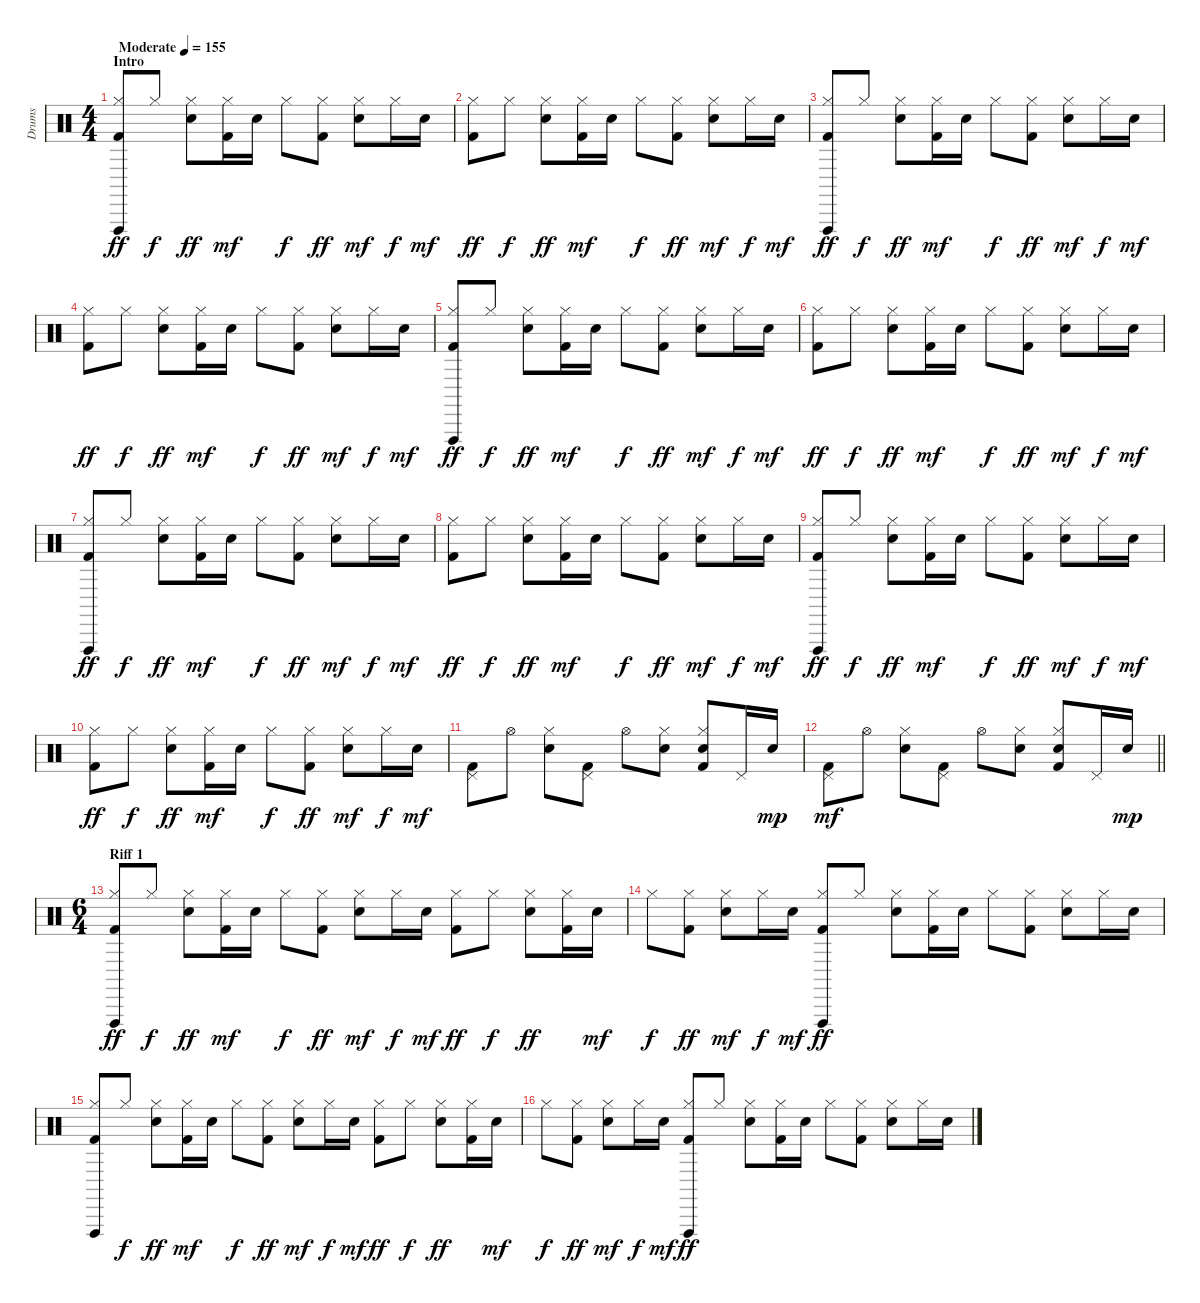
\track ("Drums" "Drums") {instrument percussion}
\staff {score}
\articulation defaults
\ts (4 4)
\section ("" "Intro")
\tempo (155 "Moderate")
\clef neutral
\ks c
("Kick (hit) 2" "Hi-Hat (closed)" "Vibraslap (hit)").8{dy ff} "Hi-Hat (closed)".8{dy f} ("Snare (hit) 2" "Hi-Hat (closed)").8{dy ff} ("Kick (hit) 2" "Hi-Hat (closed)").16{dy mf} "Snare (hit) 2".16 "Hi-Hat (closed)".8{dy f} ("Kick (hit) 2" "Hi-Hat (closed)").8{dy ff} ("Snare (hit) 2" "Hi-Hat (closed)").8{dy mf} "Hi-Hat (closed)".16{dy f} "Snare (hit) 2".16{dy mf} |
("Kick (hit) 2" "Hi-Hat (closed)").8{dy ff} "Hi-Hat (closed)".8{dy f} ("Snare (hit) 2" "Hi-Hat (closed)").8{dy ff} ("Kick (hit) 2" "Hi-Hat (closed)").16{dy mf} "Snare (hit) 2".16 "Hi-Hat (closed)".8{dy f} ("Kick (hit) 2" "Hi-Hat (closed)").8{dy ff} ("Snare (hit) 2" "Hi-Hat (closed)").8{dy mf} "Hi-Hat (closed)".16{dy f} "Snare (hit) 2".16{dy mf} |
("Kick (hit) 2" "Hi-Hat (closed)" "Vibraslap (hit)").8{dy ff} "Hi-Hat (closed)".8{dy f} ("Snare (hit) 2" "Hi-Hat (closed)").8{dy ff} ("Kick (hit) 2" "Hi-Hat (closed)").16{dy mf} "Snare (hit) 2".16 "Hi-Hat (closed)".8{dy f} ("Kick (hit) 2" "Hi-Hat (closed)").8{dy ff} ("Snare (hit) 2" "Hi-Hat (closed)").8{dy mf} "Hi-Hat (closed)".16{dy f} "Snare (hit) 2".16{dy mf} |
("Kick (hit) 2" "Hi-Hat (closed)").8{dy ff} "Hi-Hat (closed)".8{dy f} ("Snare (hit) 2" "Hi-Hat (closed)").8{dy ff} ("Kick (hit) 2" "Hi-Hat (closed)").16{dy mf} "Snare (hit) 2".16 "Hi-Hat (closed)".8{dy f} ("Kick (hit) 2" "Hi-Hat (closed)").8{dy ff} ("Snare (hit) 2" "Hi-Hat (closed)").8{dy mf} "Hi-Hat (closed)".16{dy f} "Snare (hit) 2".16{dy mf} |
("Kick (hit) 2" "Hi-Hat (closed)" "Vibraslap (hit)").8{dy ff} "Hi-Hat (closed)".8{dy f} ("Snare (hit) 2" "Hi-Hat (closed)").8{dy ff} ("Kick (hit) 2" "Hi-Hat (closed)").16{dy mf} "Snare (hit) 2".16 "Hi-Hat (closed)".8{dy f} ("Kick (hit) 2" "Hi-Hat (closed)").8{dy ff} ("Snare (hit) 2" "Hi-Hat (closed)").8{dy mf} "Hi-Hat (closed)".16{dy f} "Snare (hit) 2".16{dy mf} |
("Kick (hit) 2" "Hi-Hat (closed)").8{dy ff} "Hi-Hat (closed)".8{dy f} ("Snare (hit) 2" "Hi-Hat (closed)").8{dy ff} ("Kick (hit) 2" "Hi-Hat (closed)").16{dy mf} "Snare (hit) 2".16 "Hi-Hat (closed)".8{dy f} ("Kick (hit) 2" "Hi-Hat (closed)").8{dy ff} ("Snare (hit) 2" "Hi-Hat (closed)").8{dy mf} "Hi-Hat (closed)".16{dy f} "Snare (hit) 2".16{dy mf} |
("Kick (hit) 2" "Hi-Hat (closed)" "Vibraslap (hit)").8{dy ff} "Hi-Hat (closed)".8{dy f} ("Snare (hit) 2" "Hi-Hat (closed)").8{dy ff} ("Kick (hit) 2" "Hi-Hat (closed)").16{dy mf} "Snare (hit) 2".16 "Hi-Hat (closed)".8{dy f} ("Kick (hit) 2" "Hi-Hat (closed)").8{dy ff} ("Snare (hit) 2" "Hi-Hat (closed)").8{dy mf} "Hi-Hat (closed)".16{dy f} "Snare (hit) 2".16{dy mf} |
("Kick (hit) 2" "Hi-Hat (closed)").8{dy ff} "Hi-Hat (closed)".8{dy f} ("Snare (hit) 2" "Hi-Hat (closed)").8{dy ff} ("Kick (hit) 2" "Hi-Hat (closed)").16{dy mf} "Snare (hit) 2".16 "Hi-Hat (closed)".8{dy f} ("Kick (hit) 2" "Hi-Hat (closed)").8{dy ff} ("Snare (hit) 2" "Hi-Hat (closed)").8{dy mf} "Hi-Hat (closed)".16{dy f} "Snare (hit) 2".16{dy mf} |
("Kick (hit) 2" "Hi-Hat (closed)" "Vibraslap (hit)").8{dy ff} "Hi-Hat (closed)".8{dy f} ("Snare (hit) 2" "Hi-Hat (closed)").8{dy ff} ("Kick (hit) 2" "Hi-Hat (closed)").16{dy mf} "Snare (hit) 2".16 "Hi-Hat (closed)".8{dy f} ("Kick (hit) 2" "Hi-Hat (closed)").8{dy ff} ("Snare (hit) 2" "Hi-Hat (closed)").8{dy mf} "Hi-Hat (closed)".16{dy f} "Snare (hit) 2".16{dy mf} |
("Kick (hit) 2" "Hi-Hat (closed)").8{dy ff} "Hi-Hat (closed)".8{dy f} ("Snare (hit) 2" "Hi-Hat (closed)").8{dy ff} ("Kick (hit) 2" "Hi-Hat (closed)").16{dy mf} "Snare (hit) 2".16 "Hi-Hat (closed)".8{dy f} ("Kick (hit) 2" "Hi-Hat (closed)").8{dy ff} ("Snare (hit) 2" "Hi-Hat (closed)").8{dy mf} "Hi-Hat (closed)".16{dy f} "Snare (hit) 2".16{dy mf} |
("Kick (hit) 2" "Pedal Hi-Hat (hit)").8 "Hi-Hat (open)".8 ("Snare (hit) 2" "Hi-Hat (closed)").8 ("Kick (hit) 2" "Pedal Hi-Hat (hit)").8 "Hi-Hat (open)".8 ("Snare (hit) 2" "Hi-Hat (closed)").8 ("Kick (hit) 2" "Snare (hit) 2" "Hi-Hat (closed)").8 "Pedal Hi-Hat (hit)".16 "Snare (hit) 2".16{dy mp} |
\barLineRight lightlight
("Kick (hit) 2" "Pedal Hi-Hat (hit)").8{dy mf} "Hi-Hat (open)".8 ("Snare (hit) 2" "Hi-Hat (closed)").8 ("Kick (hit) 2" "Pedal Hi-Hat (hit)").8 "Hi-Hat (open)".8 ("Snare (hit) 2" "Hi-Hat (closed)").8 ("Kick (hit) 2" "Snare (hit) 2" "Hi-Hat (closed)").8 "Pedal Hi-Hat (hit)".16 "Snare (hit) 2".16{dy mp} |
\ts (6 4)
\section ("" "Riff 1")
("Kick (hit) 2" "Hi-Hat (closed)" "Vibraslap (hit)").8{dy ff} "Hi-Hat (closed)".8{dy f} ("Snare (hit) 2" "Hi-Hat (closed)").8{dy ff} ("Kick (hit) 2" "Hi-Hat (closed)").16{dy mf} "Snare (hit) 2".16 "Hi-Hat (closed)".8{dy f} ("Kick (hit) 2" "Hi-Hat (closed)").8{dy ff} ("Snare (hit) 2" "Hi-Hat (closed)").8{dy mf} "Hi-Hat (closed)".16{dy f} "Snare (hit) 2".16{dy mf} ("Kick (hit) 2" "Hi-Hat (closed)").8{dy ff} "Hi-Hat (closed)".8{dy f} ("Snare (hit) 2" "Hi-Hat (closed)").8{dy ff} ("Kick (hit) 2" "Hi-Hat (closed)").16 "Snare (hit) 2".16{dy mf} |
"Hi-Hat (closed)".8{dy f} ("Kick (hit) 2" "Hi-Hat (closed)").8{dy ff} ("Snare (hit) 2" "Hi-Hat (closed)").8{dy mf} "Hi-Hat (closed)".16{dy f} "Snare (hit) 2".16{dy mf} ("Kick (hit) 2" "Hi-Hat (closed)" "Vibraslap (hit)").8{dy ff} "Hi-Hat (closed)".8 ("Snare (hit) 2" "Hi-Hat (closed)").8 ("Kick (hit) 2" "Hi-Hat (closed)").16 "Snare (hit) 2".16 "Hi-Hat (closed)".8 ("Kick (hit) 2" "Hi-Hat (closed)").8 ("Snare (hit) 2" "Hi-Hat (closed)").8 "Hi-Hat (closed)".16 "Snare (hit) 2".16 |
("Kick (hit) 2" "Hi-Hat (closed)" "Vibraslap (hit)").8 "Hi-Hat (closed)".8{dy f} ("Snare (hit) 2" "Hi-Hat (closed)").8{dy ff} ("Kick (hit) 2" "Hi-Hat (closed)").16{dy mf} "Snare (hit) 2".16 "Hi-Hat (closed)".8{dy f} ("Kick (hit) 2" "Hi-Hat (closed)").8{dy ff} ("Snare (hit) 2" "Hi-Hat (closed)").8{dy mf} "Hi-Hat (closed)".16{dy f} "Snare (hit) 2".16{dy mf} ("Kick (hit) 2" "Hi-Hat (closed)").8{dy ff} "Hi-Hat (closed)".8{dy f} ("Snare (hit) 2" "Hi-Hat (closed)").8{dy ff} ("Kick (hit) 2" "Hi-Hat (closed)").16 "Snare (hit) 2".16{dy mf} |
"Hi-Hat (closed)".8{dy f} ("Kick (hit) 2" "Hi-Hat (closed)").8{dy ff} ("Snare (hit) 2" "Hi-Hat (closed)").8{dy mf} "Hi-Hat (closed)".16{dy f} "Snare (hit) 2".16{dy mf} ("Kick (hit) 2" "Hi-Hat (closed)" "Vibraslap (hit)").8{dy ff} "Hi-Hat (closed)".8 ("Snare (hit) 2" "Hi-Hat (closed)").8 ("Kick (hit) 2" "Hi-Hat (closed)").16 "Snare (hit) 2".16 "Hi-Hat (closed)".8 ("Kick (hit) 2" "Hi-Hat (closed)").8 ("Snare (hit) 2" "Hi-Hat (closed)").8 "Hi-Hat (closed)".16 "Snare (hit) 2".16
